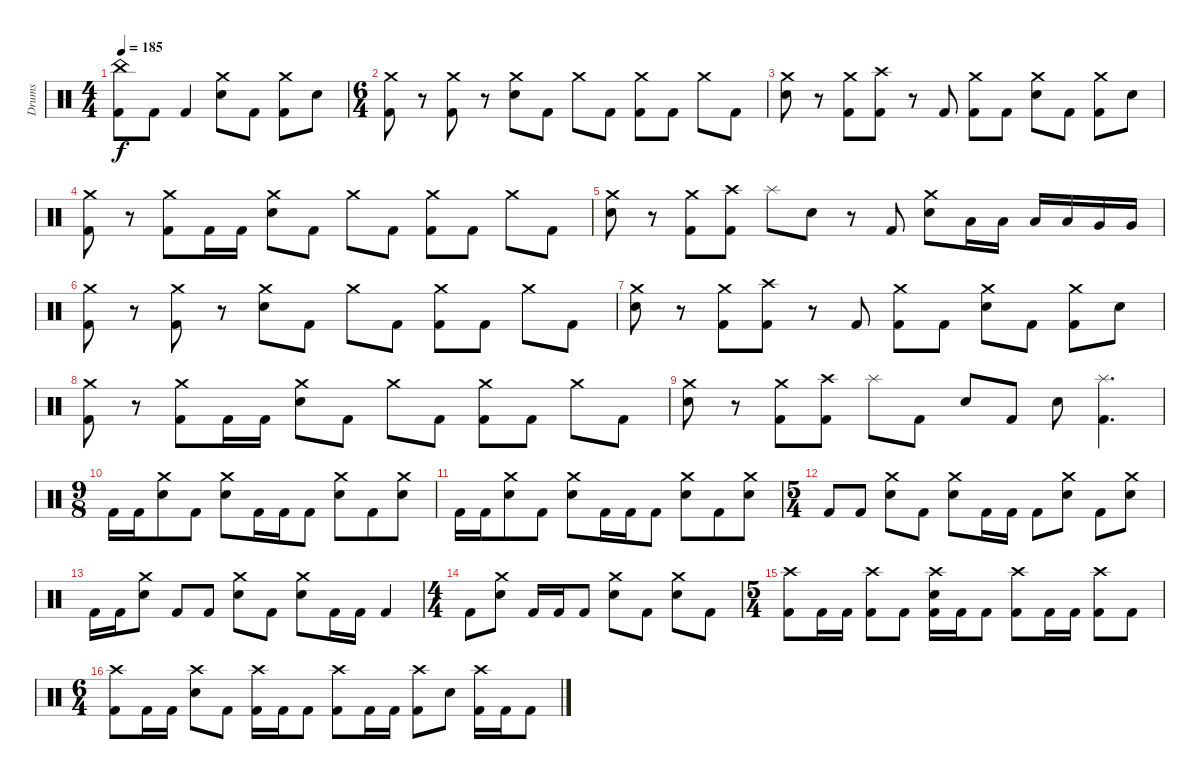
\track ("Drums" "Drums") {instrument percussion}
\staff {score}
\articulation defaults
\ts (4 4)
\tempo 185
\clef neutral
\ks c
("China (hit)" "Kick (hit) 2").8{dy f} "Kick (hit) 2".8 "Kick (hit) 2".4 ("Crash medium (hit)" "Electric Snare (hit)").8 "Kick (hit) 2".8 ("Crash medium (hit)" "Kick (hit) 2").8 "Electric Snare (hit)".8 |
\ts (6 4)
("Crash medium (hit)" "Kick (hit) 2").8 r.8 ("Crash medium (hit)" "Kick (hit) 2").8 r.8 ("Crash medium (hit)" "Electric Snare (hit)").8 "Kick (hit) 2".8 "Crash medium (hit)".8 "Kick (hit) 2".8 ("Crash medium (hit)" "Kick (hit) 2").8 "Kick (hit) 2".8 "Crash medium (hit)".8 "Kick (hit) 2".8 |
("Crash medium (hit)" "Electric Snare (hit)").8 r.8 ("Crash medium (hit)" "Kick (hit) 2").8 ("Crash high (hit)" "Kick (hit) 2").8 r.8 "Kick (hit) 2".8 ("Crash medium (hit)" "Kick (hit) 2").8 "Kick (hit) 2".8 ("Crash medium (hit)" "Electric Snare (hit)").8 "Kick (hit) 2".8 ("Crash medium (hit)" "Kick (hit) 2").8 "Electric Snare (hit)".8 |
("Crash medium (hit)" "Kick (hit) 2").8 r.8 ("Crash medium (hit)" "Kick (hit) 2").8 "Kick (hit) 2".16 "Kick (hit) 2".16 ("Crash medium (hit)" "Electric Snare (hit)").8 "Kick (hit) 2".8 "Crash medium (hit)".8 "Kick (hit) 2".8 ("Crash medium (hit)" "Kick (hit) 2").8 "Kick (hit) 2".8 "Crash medium (hit)".8 "Kick (hit) 2".8 |
("Crash medium (hit)" "Electric Snare (hit)").8 r.8 ("Crash medium (hit)" "Kick (hit) 2").8 ("Crash high (hit)" "Kick (hit) 2").8 "Splash (hit)".8 "Electric Snare (hit)".8 r.8 "Kick (hit) 2".8 ("Crash medium (hit)" "Electric Snare (hit)").8 "Low Tom (hit)".16 "Low Tom (hit)".16 "Low Tom (hit)".16 "Low Tom (hit)".16 "Very Low Tom (hit)".16 "Very Low Tom (hit)".16 |
("Crash medium (hit)" "Kick (hit) 2").8 r.8 ("Crash medium (hit)" "Kick (hit) 2").8 r.8 ("Crash medium (hit)" "Electric Snare (hit)").8 "Kick (hit) 2".8 "Crash medium (hit)".8 "Kick (hit) 2".8 ("Crash medium (hit)" "Kick (hit) 2").8 "Kick (hit) 2".8 "Crash medium (hit)".8 "Kick (hit) 2".8 |
("Crash medium (hit)" "Electric Snare (hit)").8 r.8 ("Crash medium (hit)" "Kick (hit) 2").8 ("Crash high (hit)" "Kick (hit) 2").8 r.8 "Kick (hit) 2".8 ("Crash medium (hit)" "Kick (hit) 2").8 "Kick (hit) 2".8 ("Crash medium (hit)" "Electric Snare (hit)").8 "Kick (hit) 2".8 ("Crash medium (hit)" "Kick (hit) 2").8 "Electric Snare (hit)".8 |
("Crash medium (hit)" "Kick (hit) 2").8 r.8 ("Crash medium (hit)" "Kick (hit) 2").8 "Kick (hit) 2".16 "Kick (hit) 2".16 ("Crash medium (hit)" "Electric Snare (hit)").8 "Kick (hit) 2".8 "Crash medium (hit)".8 "Kick (hit) 2".8 ("Crash medium (hit)" "Kick (hit) 2").8 "Kick (hit) 2".8 "Crash medium (hit)".8 "Kick (hit) 2".8 |
("Crash medium (hit)" "Electric Snare (hit)").8 r.8 ("Crash medium (hit)" "Kick (hit) 2").8 ("Crash high (hit)" "Kick (hit) 2").8 "Splash (hit)".8 "Kick (hit) 2".8 "Electric Snare (hit)".8 "Kick (hit) 2".8 "Electric Snare (hit)".8 ("Splash (hit)" "Kick (hit) 2").4{d} |
\ts (9 8)
"Kick (hit) 2".16 "Kick (hit) 2".16 ("Crash medium (hit)" "Electric Snare (hit)").8 "Kick (hit) 2".8 ("Crash medium (hit)" "Electric Snare (hit)").8 "Kick (hit) 2".16 "Kick (hit) 2".16 "Kick (hit) 2".8 ("Crash medium (hit)" "Electric Snare (hit)").8 "Kick (hit) 2".8 ("Crash medium (hit)" "Electric Snare (hit)").8 |
"Kick (hit) 2".16 "Kick (hit) 2".16 ("Crash medium (hit)" "Electric Snare (hit)").8 "Kick (hit) 2".8 ("Crash medium (hit)" "Electric Snare (hit)").8 "Kick (hit) 2".16 "Kick (hit) 2".16 "Kick (hit) 2".8 ("Crash medium (hit)" "Electric Snare (hit)").8 "Kick (hit) 2".8 ("Crash medium (hit)" "Electric Snare (hit)").8 |
\ts (5 4)
"Kick (hit) 2".8 "Kick (hit) 2".8 ("Crash medium (hit)" "Electric Snare (hit)").8 "Kick (hit) 2".8 ("Crash medium (hit)" "Electric Snare (hit)").8 "Kick (hit) 2".16 "Kick (hit) 2".16 "Kick (hit) 2".8 ("Crash medium (hit)" "Electric Snare (hit)").8 "Kick (hit) 2".8 ("Crash medium (hit)" "Electric Snare (hit)").8 |
"Kick (hit) 2".16 "Kick (hit) 2".16 ("Crash medium (hit)" "Electric Snare (hit)").8 "Kick (hit) 2".8 "Kick (hit) 2".8 ("Crash medium (hit)" "Electric Snare (hit)").8 "Kick (hit) 2".8 ("Crash medium (hit)" "Electric Snare (hit)").8 "Kick (hit) 2".16 "Kick (hit) 2".16 "Kick (hit) 2".4 |
\ts (4 4)
"Kick (hit) 2".8 ("Crash medium (hit)" "Electric Snare (hit)").8 "Kick (hit) 2".16 "Kick (hit) 2".16 "Kick (hit) 2".8 ("Crash medium (hit)" "Electric Snare (hit)").8 "Kick (hit) 2".8 ("Crash medium (hit)" "Electric Snare (hit)").8 "Kick (hit) 2".8 |
\ts (5 4)
("Crash high (hit)" "Kick (hit) 2").8 "Kick (hit) 2".16 "Kick (hit) 2".16 ("Crash high (hit)" "Kick (hit) 2").8 "Kick (hit) 2".8 ("Crash high (hit)" "Electric Snare (hit)" "Kick (hit) 2").16 "Kick (hit) 2".16 "Kick (hit) 2".8 ("Crash high (hit)" "Kick (hit) 2").8 "Kick (hit) 2".16 "Kick (hit) 2".16 ("Crash high (hit)" "Kick (hit) 2").8 "Kick (hit) 2".8 |
\ts (6 4)
("Crash high (hit)" "Kick (hit) 2").8 "Kick (hit) 2".16 "Kick (hit) 2".16 ("Crash high (hit)" "Electric Snare (hit)").8 "Kick (hit) 2".8 ("Crash high (hit)" "Kick (hit) 2").16 "Kick (hit) 2".16 "Kick (hit) 2".8 ("Crash high (hit)" "Kick (hit) 2").8 "Kick (hit) 2".16 "Kick (hit) 2".16 ("Crash high (hit)" "Kick (hit) 2").8 "Electric Snare (hit)".8 ("Crash high (hit)" "Kick (hit) 2").16 "Kick (hit) 2".16 "Kick (hit) 2".8
